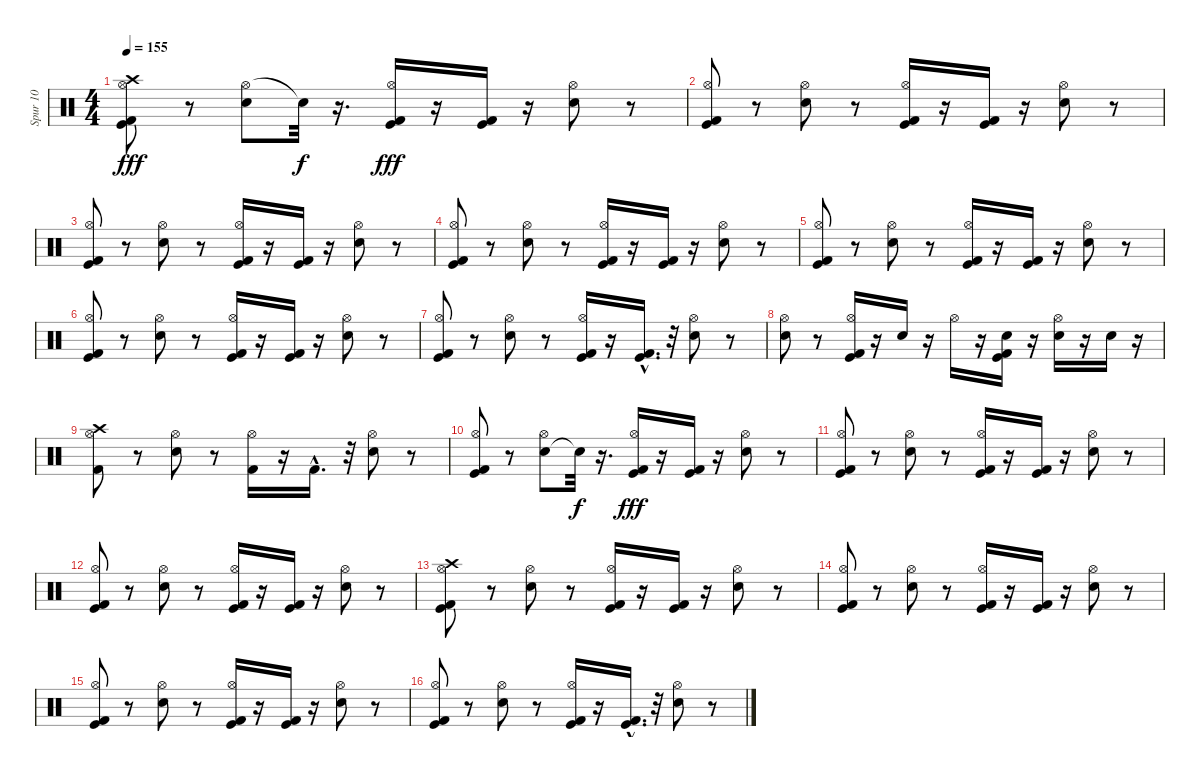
\track ("Spur 10" "Spur 10") {instrument percussion}
\staff {score}
\articulation defaults
\ts (4 4)
\tempo 155
\clef neutral
\ks c
("Crash high (hit)" "Kick (hit)" "Hi-Hat (open)" "Kick (hit) 2").8{dy fff} r.8 ("Hi-Hat (open)" "Electric Snare (hit)").8 "Snare (hit)"{t}.32{dy f} r.16{d} ("Kick (hit)" "Hi-Hat (open)" "Kick (hit) 2").16{dy fff} r.16 ("Kick (hit)" "Kick (hit) 2").16 r.16 ("Hi-Hat (open)" "Electric Snare (hit)").8 r.8 |
("Kick (hit)" "Hi-Hat (open)" "Kick (hit) 2").8 r.8 ("Hi-Hat (open)" "Electric Snare (hit)").8 r.8 ("Kick (hit)" "Hi-Hat (open)" "Kick (hit) 2").16 r.16 ("Kick (hit)" "Kick (hit) 2").16 r.16 ("Hi-Hat (open)" "Electric Snare (hit)").8 r.8 |
("Kick (hit)" "Hi-Hat (open)" "Kick (hit) 2").8 r.8 ("Hi-Hat (open)" "Electric Snare (hit)").8 r.8 ("Kick (hit)" "Hi-Hat (open)" "Kick (hit) 2").16 r.16 ("Kick (hit)" "Kick (hit) 2").16 r.16 ("Hi-Hat (open)" "Electric Snare (hit)").8 r.8 |
("Kick (hit)" "Hi-Hat (open)" "Kick (hit) 2").8 r.8 ("Hi-Hat (open)" "Electric Snare (hit)").8 r.8 ("Kick (hit)" "Hi-Hat (open)" "Kick (hit) 2").16 r.16 ("Kick (hit)" "Kick (hit) 2").16 r.16 ("Hi-Hat (open)" "Electric Snare (hit)").8 r.8 |
("Kick (hit)" "Hi-Hat (open)" "Kick (hit) 2").8 r.8 ("Hi-Hat (open)" "Electric Snare (hit)").8 r.8 ("Kick (hit)" "Hi-Hat (open)" "Kick (hit) 2").16 r.16 ("Kick (hit)" "Kick (hit) 2").16 r.16 ("Hi-Hat (open)" "Electric Snare (hit)").8 r.8 |
("Kick (hit)" "Hi-Hat (open)" "Kick (hit) 2").8 r.8 ("Hi-Hat (open)" "Electric Snare (hit)").8 r.8 ("Kick (hit)" "Hi-Hat (open)" "Kick (hit) 2").16 r.16 ("Kick (hit)" "Kick (hit) 2").16 r.16 ("Hi-Hat (open)" "Electric Snare (hit)").8 r.8 |
("Kick (hit)" "Hi-Hat (open)" "Kick (hit) 2").8 r.8 ("Hi-Hat (open)" "Electric Snare (hit)").8 r.8 ("Kick (hit)" "Hi-Hat (open)" "Kick (hit) 2").16 r.16 ("Kick (hit)"{hac} "Kick (hit) 2"{hac}).16{d} r.32 ("Hi-Hat (open)" "Electric Snare (hit)").8 r.8 |
("Electric Snare (hit)" "Hi-Hat (open)").8 r.8 ("Kick (hit)" "Kick (hit) 2" "Hi-Hat (open)").16 r.16 "Electric Snare (hit)".16 r.16 "Hi-Hat (open)".16 r.16 ("Electric Snare (hit)" "Kick (hit)" "Kick (hit) 2").16 r.16 ("Electric Snare (hit)" "Hi-Hat (open)").16 r.16 "Electric Snare (hit)".16 r.16 |
("Kick (hit) 2" "Hi-Hat (open)" "Crash high (hit)").8 r.8 ("Hi-Hat (open)" "Electric Snare (hit)").8 r.8 ("Hi-Hat (open)" "Kick (hit) 2").16 r.16 "Kick (hit) 2"{hac}.16{d} r.32 ("Hi-Hat (open)" "Electric Snare (hit)").8 r.8 |
("Kick (hit) 2" "Hi-Hat (open)" "Kick (hit)").8 r.8 ("Electric Snare (hit)" "Hi-Hat (open)").8 "Snare (hit)"{t}.32{dy f} r.16{d} ("Kick (hit) 2" "Hi-Hat (open)" "Kick (hit)").16{dy fff} r.16 ("Kick (hit) 2" "Kick (hit)").16 r.16 ("Electric Snare (hit)" "Hi-Hat (open)").8 r.8 |
("Kick (hit) 2" "Hi-Hat (open)" "Kick (hit)").8 r.8 ("Electric Snare (hit)" "Hi-Hat (open)").8 r.8 ("Kick (hit) 2" "Hi-Hat (open)" "Kick (hit)").16 r.16 ("Kick (hit) 2" "Kick (hit)").16 r.16 ("Hi-Hat (open)" "Electric Snare (hit)").8 r.8 |
("Hi-Hat (open)" "Kick (hit)" "Kick (hit) 2").8 r.8 ("Hi-Hat (open)" "Electric Snare (hit)").8 r.8 ("Kick (hit) 2" "Hi-Hat (open)" "Kick (hit)").16 r.16 ("Kick (hit)" "Kick (hit) 2").16 r.16 ("Hi-Hat (open)" "Electric Snare (hit)").8 r.8 |
("Crash high (hit)" "Hi-Hat (open)" "Kick (hit)" "Kick (hit) 2").8 r.8 ("Hi-Hat (open)" "Electric Snare (hit)").8 r.8 ("Hi-Hat (open)" "Kick (hit)" "Kick (hit) 2").16 r.16 ("Kick (hit)" "Kick (hit) 2").16 r.16 ("Hi-Hat (open)" "Electric Snare (hit)").8 r.8 |
("Hi-Hat (open)" "Kick (hit)" "Kick (hit) 2").8 r.8 ("Hi-Hat (open)" "Electric Snare (hit)").8 r.8 ("Hi-Hat (open)" "Kick (hit)" "Kick (hit) 2").16 r.16 ("Kick (hit)" "Kick (hit) 2").16 r.16 ("Hi-Hat (open)" "Electric Snare (hit)").8 r.8 |
("Hi-Hat (open)" "Kick (hit)" "Kick (hit) 2").8 r.8 ("Hi-Hat (open)" "Electric Snare (hit)").8 r.8 ("Hi-Hat (open)" "Kick (hit)" "Kick (hit) 2").16 r.16 ("Kick (hit)" "Kick (hit) 2").16 r.16 ("Hi-Hat (open)" "Electric Snare (hit)").8 r.8 |
("Hi-Hat (open)" "Kick (hit)" "Kick (hit) 2").8 r.8 ("Hi-Hat (open)" "Electric Snare (hit)").8 r.8 ("Hi-Hat (open)" "Kick (hit)" "Kick (hit) 2").16 r.16 ("Kick (hit)"{hac} "Kick (hit) 2"{hac}).16{d} r.32 ("Hi-Hat (open)" "Electric Snare (hit)").8 r.8
